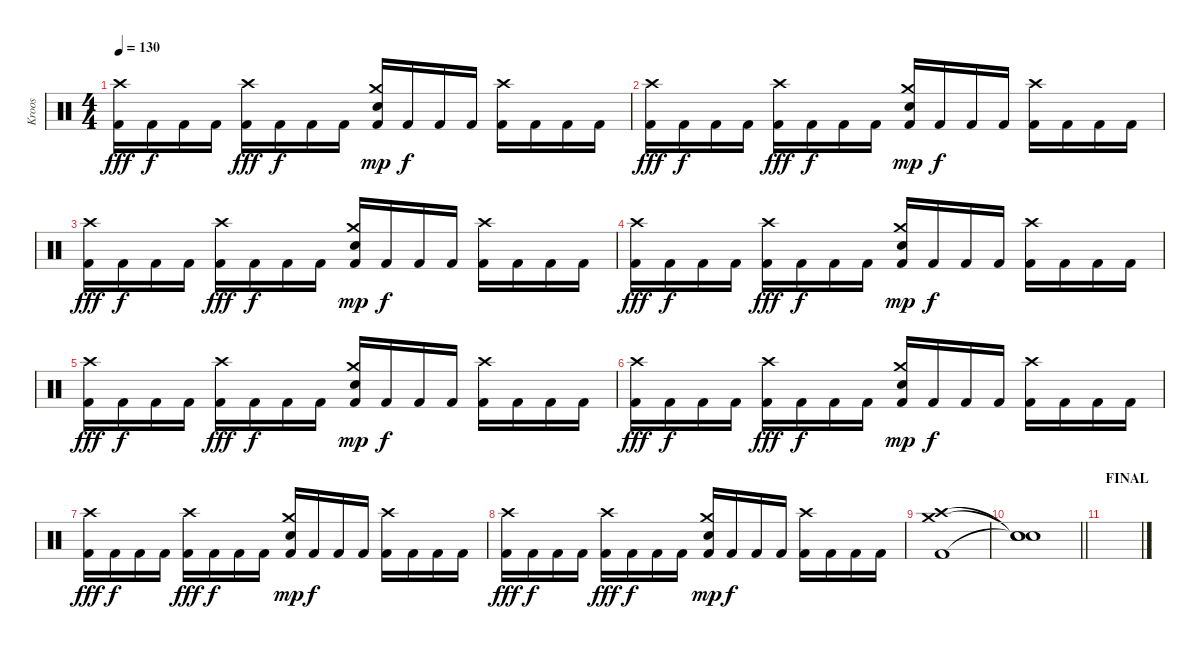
\track ("Kroos" "Kroos") {instrument percussion}
\staff {score}
\articulation defaults
\ts (4 4)
\tempo 130
\clef neutral
\ks c
("Crash high (hit)" "Kick (hit) 2").16{dy fff} "Kick (hit) 2".16{dy f} "Kick (hit) 2".16 "Kick (hit) 2".16 ("Crash high (hit)" "Kick (hit) 2").16{dy fff} "Kick (hit) 2".16{dy f} "Kick (hit) 2".16 "Kick (hit) 2".16 ("Crash medium (hit)" "Electric Snare (hit)" "Kick (hit) 2").16{dy mp} "Kick (hit) 2".16{dy f} "Kick (hit) 2".16 "Kick (hit) 2".16 ("Crash high (hit)" "Kick (hit) 2").16 "Kick (hit) 2".16 "Kick (hit) 2".16 "Kick (hit) 2".16 |
("Crash high (hit)" "Kick (hit) 2").16{dy fff} "Kick (hit) 2".16{dy f} "Kick (hit) 2".16 "Kick (hit) 2".16 ("Crash high (hit)" "Kick (hit) 2").16{dy fff} "Kick (hit) 2".16{dy f} "Kick (hit) 2".16 "Kick (hit) 2".16 ("Crash medium (hit)" "Electric Snare (hit)" "Kick (hit) 2").16{dy mp} "Kick (hit) 2".16{dy f} "Kick (hit) 2".16 "Kick (hit) 2".16 ("Crash high (hit)" "Kick (hit) 2").16 "Kick (hit) 2".16 "Kick (hit) 2".16 "Kick (hit) 2".16 |
("Crash high (hit)" "Kick (hit) 2").16{dy fff} "Kick (hit) 2".16{dy f} "Kick (hit) 2".16 "Kick (hit) 2".16 ("Crash high (hit)" "Kick (hit) 2").16{dy fff} "Kick (hit) 2".16{dy f} "Kick (hit) 2".16 "Kick (hit) 2".16 ("Crash medium (hit)" "Electric Snare (hit)" "Kick (hit) 2").16{dy mp} "Kick (hit) 2".16{dy f} "Kick (hit) 2".16 "Kick (hit) 2".16 ("Crash high (hit)" "Kick (hit) 2").16 "Kick (hit) 2".16 "Kick (hit) 2".16 "Kick (hit) 2".16 |
("Crash high (hit)" "Kick (hit) 2").16{dy fff} "Kick (hit) 2".16{dy f} "Kick (hit) 2".16 "Kick (hit) 2".16 ("Crash high (hit)" "Kick (hit) 2").16{dy fff} "Kick (hit) 2".16{dy f} "Kick (hit) 2".16 "Kick (hit) 2".16 ("Crash medium (hit)" "Electric Snare (hit)" "Kick (hit) 2").16{dy mp} "Kick (hit) 2".16{dy f} "Kick (hit) 2".16 "Kick (hit) 2".16 ("Crash high (hit)" "Kick (hit) 2").16 "Kick (hit) 2".16 "Kick (hit) 2".16 "Kick (hit) 2".16 |
("Crash high (hit)" "Kick (hit) 2").16{dy fff} "Kick (hit) 2".16{dy f} "Kick (hit) 2".16 "Kick (hit) 2".16 ("Crash high (hit)" "Kick (hit) 2").16{dy fff} "Kick (hit) 2".16{dy f} "Kick (hit) 2".16 "Kick (hit) 2".16 ("Crash medium (hit)" "Electric Snare (hit)" "Kick (hit) 2").16{dy mp} "Kick (hit) 2".16{dy f} "Kick (hit) 2".16 "Kick (hit) 2".16 ("Crash high (hit)" "Kick (hit) 2").16 "Kick (hit) 2".16 "Kick (hit) 2".16 "Kick (hit) 2".16 |
("Crash high (hit)" "Kick (hit) 2").16{dy fff} "Kick (hit) 2".16{dy f} "Kick (hit) 2".16 "Kick (hit) 2".16 ("Crash high (hit)" "Kick (hit) 2").16{dy fff} "Kick (hit) 2".16{dy f} "Kick (hit) 2".16 "Kick (hit) 2".16 ("Crash medium (hit)" "Electric Snare (hit)" "Kick (hit) 2").16{dy mp} "Kick (hit) 2".16{dy f} "Kick (hit) 2".16 "Kick (hit) 2".16 ("Crash high (hit)" "Kick (hit) 2").16 "Kick (hit) 2".16 "Kick (hit) 2".16 "Kick (hit) 2".16 |
("Crash high (hit)" "Kick (hit) 2").16{dy fff} "Kick (hit) 2".16{dy f} "Kick (hit) 2".16 "Kick (hit) 2".16 ("Crash high (hit)" "Kick (hit) 2").16{dy fff} "Kick (hit) 2".16{dy f} "Kick (hit) 2".16 "Kick (hit) 2".16 ("Crash medium (hit)" "Electric Snare (hit)" "Kick (hit) 2").16{dy mp} "Kick (hit) 2".16{dy f} "Kick (hit) 2".16 "Kick (hit) 2".16 ("Crash high (hit)" "Kick (hit) 2").16 "Kick (hit) 2".16 "Kick (hit) 2".16 "Kick (hit) 2".16 |
("Crash high (hit)" "Kick (hit) 2").16{dy fff} "Kick (hit) 2".16{dy f} "Kick (hit) 2".16 "Kick (hit) 2".16 ("Crash high (hit)" "Kick (hit) 2").16{dy fff} "Kick (hit) 2".16{dy f} "Kick (hit) 2".16 "Kick (hit) 2".16 ("Crash medium (hit)" "Electric Snare (hit)" "Kick (hit) 2").16{dy mp} "Kick (hit) 2".16{dy f} "Kick (hit) 2".16 "Kick (hit) 2".16 ("Crash high (hit)" "Kick (hit) 2").16 "Kick (hit) 2".16 "Kick (hit) 2".16 "Kick (hit) 2".16 |
("Crash high (hit)" "Crash medium (hit)" "Kick (hit) 2").1 |
\barLineRight lightlight
("Snare (hit)"{t} "Snare (hit)"{t} "Snare (hit)"{t}).1 |
\section ("" "FINAL")
